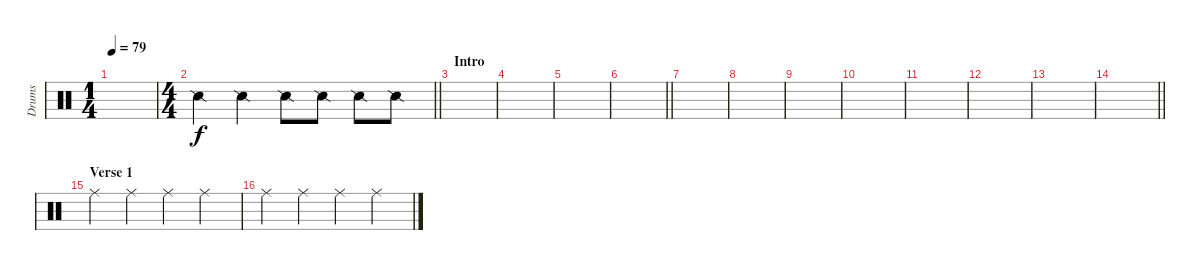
\track ("Drums" "Drums") {instrument percussion}
\staff {score}
\articulation defaults
\ts (1 4)
\tempo 79
\clef neutral
\ks c
|
\ts (4 4)
\barLineRight lightlight "Snare (side stick) 2".4 "Snare (side stick) 2".4 "Snare (side stick) 2".8 "Snare (side stick) 2".8 "Snare (side stick) 2".8 "Snare (side stick) 2".8
|
\section ("" "Intro")
|
|
|
\barLineRight lightlight
|
|
|
|
|
|
|
|
\barLineRight lightlight
|
\section ("" "Verse 1")
"Ride (middle)".4 "Ride (middle)".4 "Ride (middle)".4 "Ride (middle)".4 |
"Ride (middle)".4 "Ride (middle)".4 "Ride (middle)".4 "Ride (middle)".4
